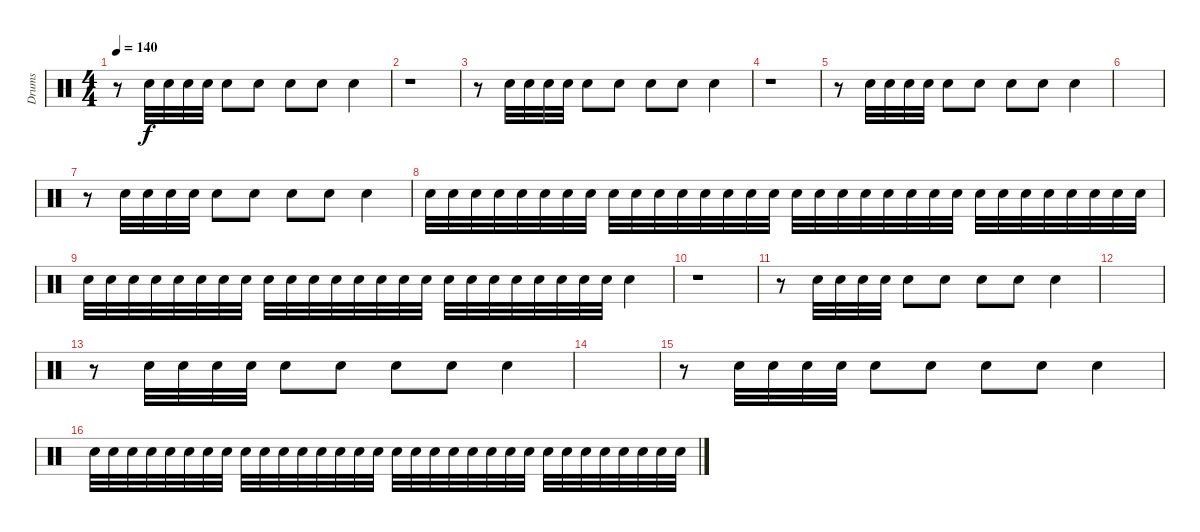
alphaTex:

\track ("Drums" "Drums") {instrument percussion}
\staff {score}
\articulation defaults
\ts (4 4)
\tempo 140
\clef neutral
\ks c
r.8{dy f volume 6} "Electric Snare (hit)".32 "Electric Snare (hit)".32 "Electric Snare (hit)".32 "Electric Snare (hit)".32 "Electric Snare (hit)".8 "Electric Snare (hit)".8 "Electric Snare (hit)".8 "Electric Snare (hit)".8 "Electric Snare (hit)".4 |
r.1 |
r.8 "Electric Snare (hit)".32 "Electric Snare (hit)".32 "Electric Snare (hit)".32 "Electric Snare (hit)".32 "Electric Snare (hit)".8 "Electric Snare (hit)".8 "Electric Snare (hit)".8 "Electric Snare (hit)".8 "Electric Snare (hit)".4 |
r.1 |
r.8 "Electric Snare (hit)".32 "Electric Snare (hit)".32 "Electric Snare (hit)".32 "Electric Snare (hit)".32 "Electric Snare (hit)".8 "Electric Snare (hit)".8 "Electric Snare (hit)".8 "Electric Snare (hit)".8 "Electric Snare (hit)".4 |
|
r.8 "Electric Snare (hit)".32 "Electric Snare (hit)".32 "Electric Snare (hit)".32 "Electric Snare (hit)".32 "Electric Snare (hit)".8 "Electric Snare (hit)".8 "Electric Snare (hit)".8 "Electric Snare (hit)".8 "Electric Snare (hit)".4 |
"Electric Snare (hit)".32 "Electric Snare (hit)".32 "Electric Snare (hit)".32 "Electric Snare (hit)".32 "Electric Snare (hit)".32 "Electric Snare (hit)".32 "Electric Snare (hit)".32 "Electric Snare (hit)".32 "Electric Snare (hit)".32 "Electric Snare (hit)".32 "Electric Snare (hit)".32 "Electric Snare (hit)".32 "Electric Snare (hit)".32 "Electric Snare (hit)".32 "Electric Snare (hit)".32 "Electric Snare (hit)".32 "Electric Snare (hit)".32 "Electric Snare (hit)".32 "Electric Snare (hit)".32 "Electric Snare (hit)".32 "Electric Snare (hit)".32 "Electric Snare (hit)".32 "Electric Snare (hit)".32 "Electric Snare (hit)".32 "Electric Snare (hit)".32 "Electric Snare (hit)".32 "Electric Snare (hit)".32 "Electric Snare (hit)".32 "Electric Snare (hit)".32 "Electric Snare (hit)".32 "Electric Snare (hit)".32 "Electric Snare (hit)".32 |
"Electric Snare (hit)".32 "Electric Snare (hit)".32 "Electric Snare (hit)".32 "Electric Snare (hit)".32 "Electric Snare (hit)".32 "Electric Snare (hit)".32 "Electric Snare (hit)".32 "Electric Snare (hit)".32 "Electric Snare (hit)".32 "Electric Snare (hit)".32 "Electric Snare (hit)".32 "Electric Snare (hit)".32 "Electric Snare (hit)".32 "Electric Snare (hit)".32 "Electric Snare (hit)".32 "Electric Snare (hit)".32 "Electric Snare (hit)".32 "Electric Snare (hit)".32 "Electric Snare (hit)".32 "Electric Snare (hit)".32 "Electric Snare (hit)".32 "Electric Snare (hit)".32 "Electric Snare (hit)".32 "Electric Snare (hit)".32 "Electric Snare (hit)".4 |
r.1 |
r.8 "Electric Snare (hit)".32 "Electric Snare (hit)".32 "Electric Snare (hit)".32 "Electric Snare (hit)".32 "Electric Snare (hit)".8 "Electric Snare (hit)".8 "Electric Snare (hit)".8 "Electric Snare (hit)".8 "Electric Snare (hit)".4 |
|
r.8 "Electric Snare (hit)".32 "Electric Snare (hit)".32 "Electric Snare (hit)".32 "Electric Snare (hit)".32 "Electric Snare (hit)".8 "Electric Snare (hit)".8 "Electric Snare (hit)".8 "Electric Snare (hit)".8 "Electric Snare (hit)".4 |
|
r.8 "Electric Snare (hit)".32 "Electric Snare (hit)".32 "Electric Snare (hit)".32 "Electric Snare (hit)".32 "Electric Snare (hit)".8 "Electric Snare (hit)".8 "Electric Snare (hit)".8 "Electric Snare (hit)".8 "Electric Snare (hit)".4 |
"Electric Snare (hit)".32 "Electric Snare (hit)".32 "Electric Snare (hit)".32 "Electric Snare (hit)".32 "Electric Snare (hit)".32 "Electric Snare (hit)".32 "Electric Snare (hit)".32 "Electric Snare (hit)".32 "Electric Snare (hit)".32 "Electric Snare (hit)".32 "Electric Snare (hit)".32 "Electric Snare (hit)".32 "Electric Snare (hit)".32 "Electric Snare (hit)".32 "Electric Snare (hit)".32 "Electric Snare (hit)".32 "Electric Snare (hit)".32 "Electric Snare (hit)".32 "Electric Snare (hit)".32 "Electric Snare (hit)".32 "Electric Snare (hit)".32 "Electric Snare (hit)".32 "Electric Snare (hit)".32 "Electric Snare (hit)".32 "Electric Snare (hit)".32 "Electric Snare (hit)".32 "Electric Snare (hit)".32 "Electric Snare (hit)".32 "Electric Snare (hit)".32 "Electric Snare (hit)".32 "Electric Snare (hit)".32 "Electric Snare (hit)".32
